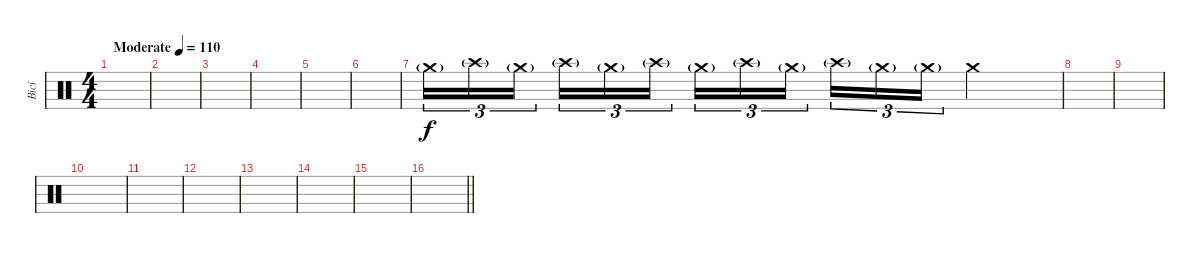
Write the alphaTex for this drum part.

\track ("Bicí" "Bicí") {instrument percussion}
\staff {score}
\articulation defaults
\ts (4 4)
\tempo (110 "Moderate")
\clef neutral
\ks c
|
|
|
|
|
|
"Crash medium (hit)"{g}.16{tu (3 2) volume 13} "Crash high (hit)"{g}.16{tu (3 2)} "Crash medium (hit)"{g}.16{tu (3 2) beam splitsecondary} "Crash high (hit)"{g}.16{tu (3 2)} "Crash medium (hit)"{g}.16{tu (3 2)} "Crash high (hit)"{g}.16{tu (3 2)} "Crash medium (hit)"{g}.16{tu (3 2)} "Crash high (hit)"{g}.16{tu (3 2)} "Crash medium (hit)"{g}.16{tu (3 2) beam splitsecondary} "Crash high (hit)"{g}.16{tu (3 2)} "Crash medium (hit)"{g}.16{tu (3 2)} "Crash medium (hit)"{g}.16{tu (3 2)} "Crash medium (hit)".2{dy f} |
|
|
|
|
|
|
|
|
\barLineRight lightlight
